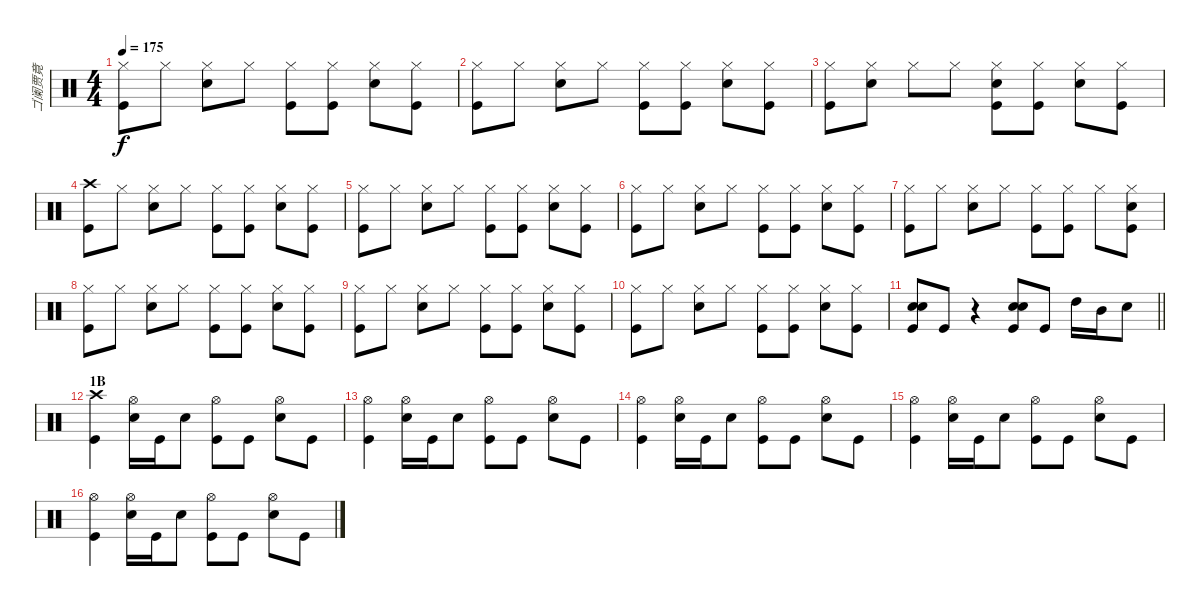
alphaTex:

\track ("ゴ阑贾竟" "ゴ阑贾竟") {instrument percussion}
\staff {score}
\articulation defaults
\ts (4 4)
\tempo 175
\clef neutral
\ks c
("Hi-Hat (closed)" "Kick (hit)").8{dy f} "Hi-Hat (closed)".8 ("Hi-Hat (closed)" "Snare (hit) 2").8 "Hi-Hat (closed)".8 ("Hi-Hat (closed)" "Kick (hit)").8 ("Hi-Hat (closed)" "Kick (hit)").8 ("Hi-Hat (closed)" "Snare (hit) 2").8 ("Hi-Hat (closed)" "Kick (hit)").8 |
("Hi-Hat (closed)" "Kick (hit)").8 "Hi-Hat (closed)".8 ("Hi-Hat (closed)" "Snare (hit) 2").8 "Hi-Hat (closed)".8 ("Hi-Hat (closed)" "Kick (hit)").8 ("Hi-Hat (closed)" "Kick (hit)").8 ("Hi-Hat (closed)" "Snare (hit) 2").8 ("Hi-Hat (closed)" "Kick (hit)").8 |
("Hi-Hat (closed)" "Kick (hit)").8 ("Hi-Hat (closed)" "Snare (hit) 2").8 "Hi-Hat (closed)".8 "Hi-Hat (closed)".8 ("Hi-Hat (closed)" "Kick (hit)" "Snare (hit) 2").8 ("Hi-Hat (closed)" "Kick (hit)").8 ("Hi-Hat (closed)" "Snare (hit) 2").8 ("Hi-Hat (closed)" "Kick (hit)").8 |
("Crash high (hit)" "Kick (hit)").8 "Hi-Hat (closed)".8 ("Hi-Hat (closed)" "Snare (hit) 2").8 "Hi-Hat (closed)".8 ("Hi-Hat (closed)" "Kick (hit)").8 ("Hi-Hat (closed)" "Kick (hit)").8 ("Hi-Hat (closed)" "Snare (hit) 2").8 ("Hi-Hat (closed)" "Kick (hit)").8 |
("Hi-Hat (closed)" "Kick (hit)").8 "Hi-Hat (closed)".8 ("Hi-Hat (closed)" "Snare (hit) 2").8 "Hi-Hat (closed)".8 ("Hi-Hat (closed)" "Kick (hit)").8 ("Hi-Hat (closed)" "Kick (hit)").8 ("Hi-Hat (closed)" "Snare (hit) 2").8 ("Hi-Hat (closed)" "Kick (hit)").8 |
("Hi-Hat (closed)" "Kick (hit)").8 "Hi-Hat (closed)".8 ("Hi-Hat (closed)" "Snare (hit) 2").8 "Hi-Hat (closed)".8 ("Hi-Hat (closed)" "Kick (hit)").8 ("Hi-Hat (closed)" "Kick (hit)").8 ("Hi-Hat (closed)" "Snare (hit) 2").8 ("Hi-Hat (closed)" "Kick (hit)").8 |
("Hi-Hat (closed)" "Kick (hit)").8 "Hi-Hat (closed)".8 ("Hi-Hat (closed)" "Snare (hit) 2").8 "Hi-Hat (closed)".8 ("Hi-Hat (closed)" "Kick (hit)").8 ("Hi-Hat (closed)" "Kick (hit)").8 "Hi-Hat (closed)".8 ("Hi-Hat (closed)" "Kick (hit)" "Snare (hit) 2").8 |
("Hi-Hat (closed)" "Kick (hit)").8 "Hi-Hat (closed)".8 ("Hi-Hat (closed)" "Snare (hit) 2").8 "Hi-Hat (closed)".8 ("Hi-Hat (closed)" "Kick (hit)").8 ("Hi-Hat (closed)" "Kick (hit)").8 ("Hi-Hat (closed)" "Snare (hit) 2").8 ("Hi-Hat (closed)" "Kick (hit)").8 |
("Hi-Hat (closed)" "Kick (hit)").8 "Hi-Hat (closed)".8 ("Hi-Hat (closed)" "Snare (hit) 2").8 "Hi-Hat (closed)".8 ("Hi-Hat (closed)" "Kick (hit)").8 ("Hi-Hat (closed)" "Kick (hit)").8 ("Hi-Hat (closed)" "Snare (hit) 2").8 ("Hi-Hat (closed)" "Kick (hit)").8 |
("Hi-Hat (closed)" "Kick (hit)").8 "Hi-Hat (closed)".8 ("Hi-Hat (closed)" "Snare (hit) 2").8 "Hi-Hat (closed)".8 ("Hi-Hat (closed)" "Kick (hit)").8 ("Hi-Hat (closed)" "Kick (hit)").8 ("Hi-Hat (closed)" "Snare (hit) 2").8 ("Hi-Hat (closed)" "Kick (hit)").8 |
\barLineRight lightlight
("Snare (hit) 2" "Snare (hit) 2" "Kick (hit)").8 "Kick (hit)".8 r.4 ("Snare (hit) 2" "Snare (hit) 2" "Kick (hit)").8 "Kick (hit)".8 "High Tom (hit)".16 "Mid Tom (hit)".16 "Snare (hit) 2".8 |
\section ("" "1B")
("Crash high (hit)" "Kick (hit)").4 ("Snare (hit) 2" "Hi-Hat (open)").16 "Kick (hit)".16 "Snare (hit) 2".8 ("Kick (hit)" "Hi-Hat (open)").8 "Kick (hit)".8 ("Snare (hit) 2" "Hi-Hat (open)").8 "Kick (hit)".8 |
("Hi-Hat (open)" "Kick (hit)").4 ("Snare (hit) 2" "Hi-Hat (open)").16 "Kick (hit)".16 "Snare (hit) 2".8 ("Kick (hit)" "Hi-Hat (open)").8 "Kick (hit)".8 ("Snare (hit) 2" "Hi-Hat (open)").8 "Kick (hit)".8 |
("Hi-Hat (open)" "Kick (hit)").4 ("Snare (hit) 2" "Hi-Hat (open)").16 "Kick (hit)".16 "Snare (hit) 2".8 ("Kick (hit)" "Hi-Hat (open)").8 "Kick (hit)".8 ("Snare (hit) 2" "Hi-Hat (open)").8 "Kick (hit)".8 |
("Hi-Hat (open)" "Kick (hit)").4 ("Snare (hit) 2" "Hi-Hat (open)").16 "Kick (hit)".16 "Snare (hit) 2".8 ("Kick (hit)" "Hi-Hat (open)").8 "Kick (hit)".8 ("Snare (hit) 2" "Hi-Hat (open)").8 "Kick (hit)".8 |
("Hi-Hat (open)" "Kick (hit)").4 ("Snare (hit) 2" "Hi-Hat (open)").16 "Kick (hit)".16 "Snare (hit) 2".8 ("Kick (hit)" "Hi-Hat (open)").8 "Kick (hit)".8 ("Snare (hit) 2" "Hi-Hat (open)").8 "Kick (hit)".8
